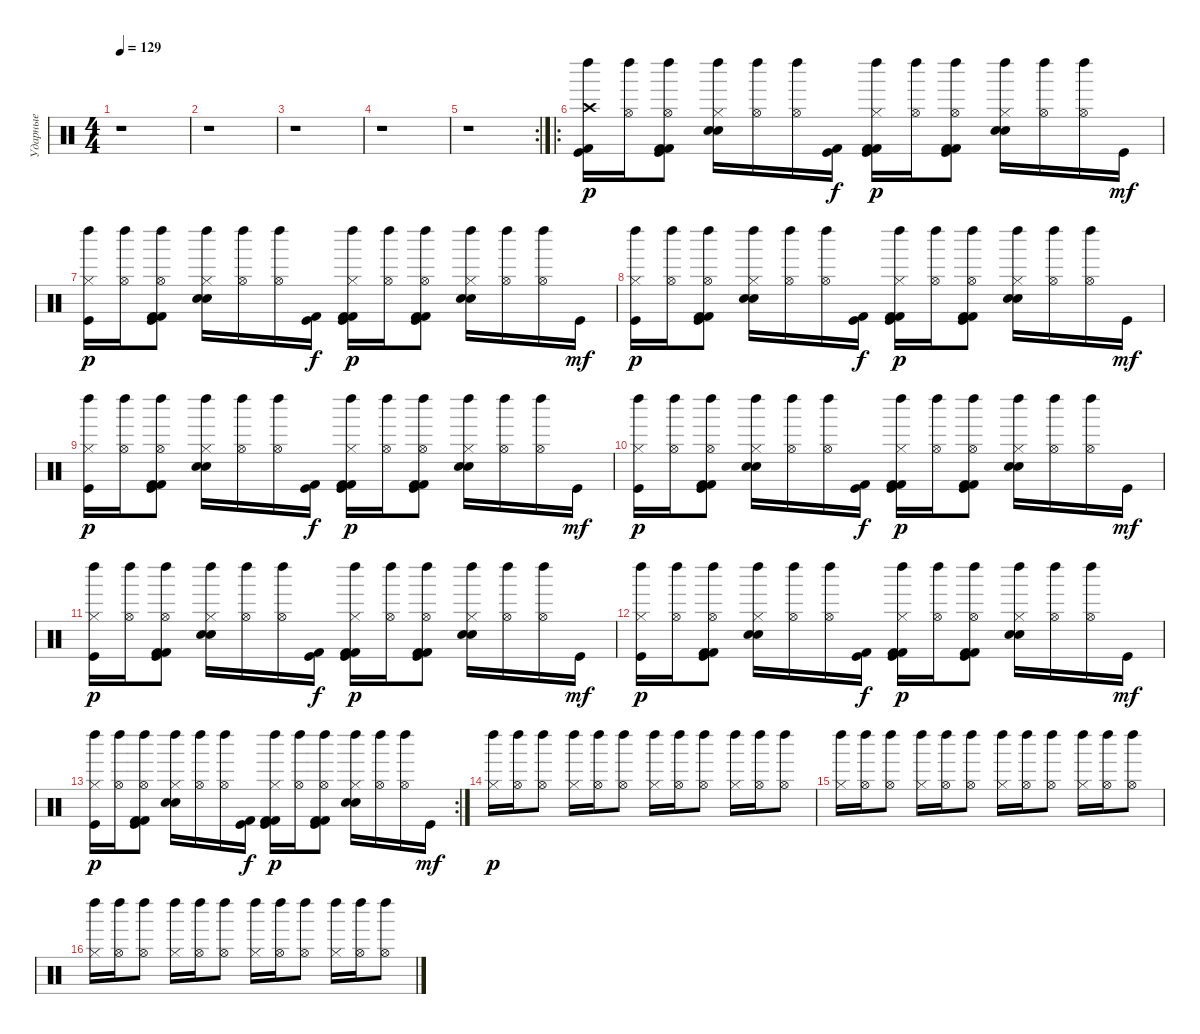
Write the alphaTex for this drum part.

\track ("Ударные" "Ударные") {instrument percussion}
\staff {score}
\articulation defaults
\ts (4 4)
\tempo 129
\clef neutral
\ks c
r.1{dy mf} |
r.1 |
r.1 |
r.1 |
\rc 2
r.1 |
\ro
("Kick (hit)" "Kick (hit) 2" "Crash high (hit)" "Left Maraca (hit)").16{dy p} ("Left Maraca (hit)" "Hi-Hat (open)").16 ("Kick (hit)" "Kick (hit) 2" "Kick (hit) 2" "Left Maraca (hit)" "Hi-Hat (open)").8 ("Snare (hit) 2" "Electric Snare (hit)" "Hi-Hat (closed)" "Left Maraca (hit)").16 ("Left Maraca (hit)" "Hi-Hat (open)").16 ("Left Maraca (hit)" "Hi-Hat (open)").16 ("Kick (hit)" "Kick (hit) 2").16{dy f} ("Kick (hit)" "Kick (hit) 2" "Kick (hit) 2" "Hi-Hat (closed)" "Left Maraca (hit)").16{dy p} ("Left Maraca (hit)" "Hi-Hat (open)").16 ("Kick (hit)" "Kick (hit) 2" "Kick (hit) 2" "Left Maraca (hit)" "Hi-Hat (open)").8 ("Snare (hit) 2" "Electric Snare (hit)" "Hi-Hat (closed)" "Left Maraca (hit)").16 ("Left Maraca (hit)" "Hi-Hat (open)").16 ("Left Maraca (hit)" "Hi-Hat (open)").16 "Kick (hit)".16{dy mf} |
("Kick (hit)" "Hi-Hat (closed)" "Left Maraca (hit)").16{dy p} ("Left Maraca (hit)" "Hi-Hat (open)").16 ("Kick (hit)" "Kick (hit) 2" "Kick (hit) 2" "Left Maraca (hit)" "Hi-Hat (open)").8 ("Snare (hit) 2" "Electric Snare (hit)" "Hi-Hat (closed)" "Left Maraca (hit)").16 ("Left Maraca (hit)" "Hi-Hat (open)").16 ("Left Maraca (hit)" "Hi-Hat (open)").16 ("Kick (hit)" "Kick (hit) 2").16{dy f} ("Kick (hit)" "Kick (hit) 2" "Kick (hit) 2" "Hi-Hat (closed)" "Left Maraca (hit)").16{dy p} ("Left Maraca (hit)" "Hi-Hat (open)").16 ("Kick (hit)" "Kick (hit) 2" "Kick (hit) 2" "Left Maraca (hit)" "Hi-Hat (open)").8 ("Snare (hit) 2" "Electric Snare (hit)" "Hi-Hat (closed)" "Left Maraca (hit)").16 ("Left Maraca (hit)" "Hi-Hat (open)").16 ("Left Maraca (hit)" "Hi-Hat (open)").16 "Kick (hit)".16{dy mf} |
("Kick (hit)" "Hi-Hat (closed)" "Left Maraca (hit)").16{dy p} ("Left Maraca (hit)" "Hi-Hat (open)").16 ("Kick (hit)" "Kick (hit) 2" "Kick (hit) 2" "Left Maraca (hit)" "Hi-Hat (open)").8 ("Snare (hit) 2" "Electric Snare (hit)" "Hi-Hat (closed)" "Left Maraca (hit)").16 ("Left Maraca (hit)" "Hi-Hat (open)").16 ("Left Maraca (hit)" "Hi-Hat (open)").16 ("Kick (hit)" "Kick (hit) 2").16{dy f} ("Kick (hit)" "Kick (hit) 2" "Kick (hit) 2" "Hi-Hat (closed)" "Left Maraca (hit)").16{dy p} ("Left Maraca (hit)" "Hi-Hat (open)").16 ("Kick (hit)" "Kick (hit) 2" "Kick (hit) 2" "Left Maraca (hit)" "Hi-Hat (open)").8 ("Snare (hit) 2" "Electric Snare (hit)" "Hi-Hat (closed)" "Left Maraca (hit)").16 ("Left Maraca (hit)" "Hi-Hat (open)").16 ("Left Maraca (hit)" "Hi-Hat (open)").16 "Kick (hit)".16{dy mf} |
("Kick (hit)" "Hi-Hat (closed)" "Left Maraca (hit)").16{dy p} ("Left Maraca (hit)" "Hi-Hat (open)").16 ("Kick (hit)" "Kick (hit) 2" "Kick (hit) 2" "Left Maraca (hit)" "Hi-Hat (open)").8 ("Snare (hit) 2" "Electric Snare (hit)" "Hi-Hat (closed)" "Left Maraca (hit)").16 ("Left Maraca (hit)" "Hi-Hat (open)").16 ("Left Maraca (hit)" "Hi-Hat (open)").16 ("Kick (hit)" "Kick (hit) 2").16{dy f} ("Kick (hit)" "Kick (hit) 2" "Kick (hit) 2" "Hi-Hat (closed)" "Left Maraca (hit)").16{dy p} ("Left Maraca (hit)" "Hi-Hat (open)").16 ("Kick (hit)" "Kick (hit) 2" "Kick (hit) 2" "Left Maraca (hit)" "Hi-Hat (open)").8 ("Snare (hit) 2" "Electric Snare (hit)" "Hi-Hat (closed)" "Left Maraca (hit)").16 ("Left Maraca (hit)" "Hi-Hat (open)").16 ("Left Maraca (hit)" "Hi-Hat (open)").16 "Kick (hit)".16{dy mf} |
("Kick (hit)" "Hi-Hat (closed)" "Left Maraca (hit)").16{dy p} ("Left Maraca (hit)" "Hi-Hat (open)").16 ("Kick (hit)" "Kick (hit) 2" "Kick (hit) 2" "Left Maraca (hit)" "Hi-Hat (open)").8 ("Snare (hit) 2" "Electric Snare (hit)" "Hi-Hat (closed)" "Left Maraca (hit)").16 ("Left Maraca (hit)" "Hi-Hat (open)").16 ("Left Maraca (hit)" "Hi-Hat (open)").16 ("Kick (hit)" "Kick (hit) 2").16{dy f} ("Kick (hit)" "Kick (hit) 2" "Kick (hit) 2" "Hi-Hat (closed)" "Left Maraca (hit)").16{dy p} ("Left Maraca (hit)" "Hi-Hat (open)").16 ("Kick (hit)" "Kick (hit) 2" "Kick (hit) 2" "Left Maraca (hit)" "Hi-Hat (open)").8 ("Snare (hit) 2" "Electric Snare (hit)" "Hi-Hat (closed)" "Left Maraca (hit)").16 ("Left Maraca (hit)" "Hi-Hat (open)").16 ("Left Maraca (hit)" "Hi-Hat (open)").16 "Kick (hit)".16{dy mf} |
("Kick (hit)" "Hi-Hat (closed)" "Left Maraca (hit)").16{dy p} ("Left Maraca (hit)" "Hi-Hat (open)").16 ("Kick (hit)" "Kick (hit) 2" "Kick (hit) 2" "Left Maraca (hit)" "Hi-Hat (open)").8 ("Snare (hit) 2" "Electric Snare (hit)" "Hi-Hat (closed)" "Left Maraca (hit)").16 ("Left Maraca (hit)" "Hi-Hat (open)").16 ("Left Maraca (hit)" "Hi-Hat (open)").16 ("Kick (hit)" "Kick (hit) 2").16{dy f} ("Kick (hit)" "Kick (hit) 2" "Kick (hit) 2" "Hi-Hat (closed)" "Left Maraca (hit)").16{dy p} ("Left Maraca (hit)" "Hi-Hat (open)").16 ("Kick (hit)" "Kick (hit) 2" "Kick (hit) 2" "Left Maraca (hit)" "Hi-Hat (open)").8 ("Snare (hit) 2" "Electric Snare (hit)" "Hi-Hat (closed)" "Left Maraca (hit)").16 ("Left Maraca (hit)" "Hi-Hat (open)").16 ("Left Maraca (hit)" "Hi-Hat (open)").16 "Kick (hit)".16{dy mf} |
("Kick (hit)" "Hi-Hat (closed)" "Left Maraca (hit)").16{dy p} ("Left Maraca (hit)" "Hi-Hat (open)").16 ("Kick (hit)" "Kick (hit) 2" "Kick (hit) 2" "Left Maraca (hit)" "Hi-Hat (open)").8 ("Snare (hit) 2" "Electric Snare (hit)" "Hi-Hat (closed)" "Left Maraca (hit)").16 ("Left Maraca (hit)" "Hi-Hat (open)").16 ("Left Maraca (hit)" "Hi-Hat (open)").16 ("Kick (hit)" "Kick (hit) 2").16{dy f} ("Kick (hit)" "Kick (hit) 2" "Kick (hit) 2" "Hi-Hat (closed)" "Left Maraca (hit)").16{dy p} ("Left Maraca (hit)" "Hi-Hat (open)").16 ("Kick (hit)" "Kick (hit) 2" "Kick (hit) 2" "Left Maraca (hit)" "Hi-Hat (open)").8 ("Snare (hit) 2" "Electric Snare (hit)" "Hi-Hat (closed)" "Left Maraca (hit)").16 ("Left Maraca (hit)" "Hi-Hat (open)").16 ("Left Maraca (hit)" "Hi-Hat (open)").16 "Kick (hit)".16{dy mf} |
\rc 2
("Kick (hit)" "Hi-Hat (closed)" "Left Maraca (hit)").16{dy p} ("Left Maraca (hit)" "Hi-Hat (open)").16 ("Kick (hit)" "Kick (hit) 2" "Kick (hit) 2" "Left Maraca (hit)" "Hi-Hat (open)").8 ("Snare (hit) 2" "Electric Snare (hit)" "Hi-Hat (closed)" "Left Maraca (hit)").16 ("Left Maraca (hit)" "Hi-Hat (open)").16 ("Left Maraca (hit)" "Hi-Hat (open)").16 ("Kick (hit)" "Kick (hit) 2").16{dy f} ("Kick (hit)" "Kick (hit) 2" "Kick (hit) 2" "Hi-Hat (closed)" "Left Maraca (hit)").16{dy p} ("Left Maraca (hit)" "Hi-Hat (open)").16 ("Kick (hit)" "Kick (hit) 2" "Kick (hit) 2" "Left Maraca (hit)" "Hi-Hat (open)").8 ("Snare (hit) 2" "Electric Snare (hit)" "Hi-Hat (closed)" "Left Maraca (hit)").16 ("Left Maraca (hit)" "Hi-Hat (open)").16 ("Left Maraca (hit)" "Hi-Hat (open)").16 "Kick (hit)".16{dy mf} |
("Hi-Hat (closed)" "Left Maraca (hit)").16{dy p} ("Left Maraca (hit)" "Hi-Hat (open)").16 ("Left Maraca (hit)" "Hi-Hat (open)").8 ("Hi-Hat (closed)" "Left Maraca (hit)").16 ("Left Maraca (hit)" "Hi-Hat (open)").16 ("Left Maraca (hit)" "Hi-Hat (open)").8 ("Hi-Hat (closed)" "Left Maraca (hit)").16 ("Left Maraca (hit)" "Hi-Hat (open)").16 ("Left Maraca (hit)" "Hi-Hat (open)").8 ("Hi-Hat (closed)" "Left Maraca (hit)").16 ("Left Maraca (hit)" "Hi-Hat (open)").16 ("Left Maraca (hit)" "Hi-Hat (open)").8 |
("Hi-Hat (closed)" "Left Maraca (hit)").16 ("Left Maraca (hit)" "Hi-Hat (open)").16 ("Left Maraca (hit)" "Hi-Hat (open)").8 ("Hi-Hat (closed)" "Left Maraca (hit)").16 ("Left Maraca (hit)" "Hi-Hat (open)").16 ("Left Maraca (hit)" "Hi-Hat (open)").8 ("Hi-Hat (closed)" "Left Maraca (hit)").16 ("Left Maraca (hit)" "Hi-Hat (open)").16 ("Left Maraca (hit)" "Hi-Hat (open)").8 ("Hi-Hat (closed)" "Left Maraca (hit)").16 ("Left Maraca (hit)" "Hi-Hat (open)").16 ("Left Maraca (hit)" "Hi-Hat (open)").8 |
("Hi-Hat (closed)" "Left Maraca (hit)").16 ("Left Maraca (hit)" "Hi-Hat (open)").16 ("Left Maraca (hit)" "Hi-Hat (open)").8 ("Hi-Hat (closed)" "Left Maraca (hit)").16 ("Left Maraca (hit)" "Hi-Hat (open)").16 ("Left Maraca (hit)" "Hi-Hat (open)").8 ("Hi-Hat (closed)" "Left Maraca (hit)").16 ("Left Maraca (hit)" "Hi-Hat (open)").16 ("Left Maraca (hit)" "Hi-Hat (open)").8 ("Hi-Hat (closed)" "Left Maraca (hit)").16 ("Left Maraca (hit)" "Hi-Hat (open)").16 ("Left Maraca (hit)" "Hi-Hat (open)").8
